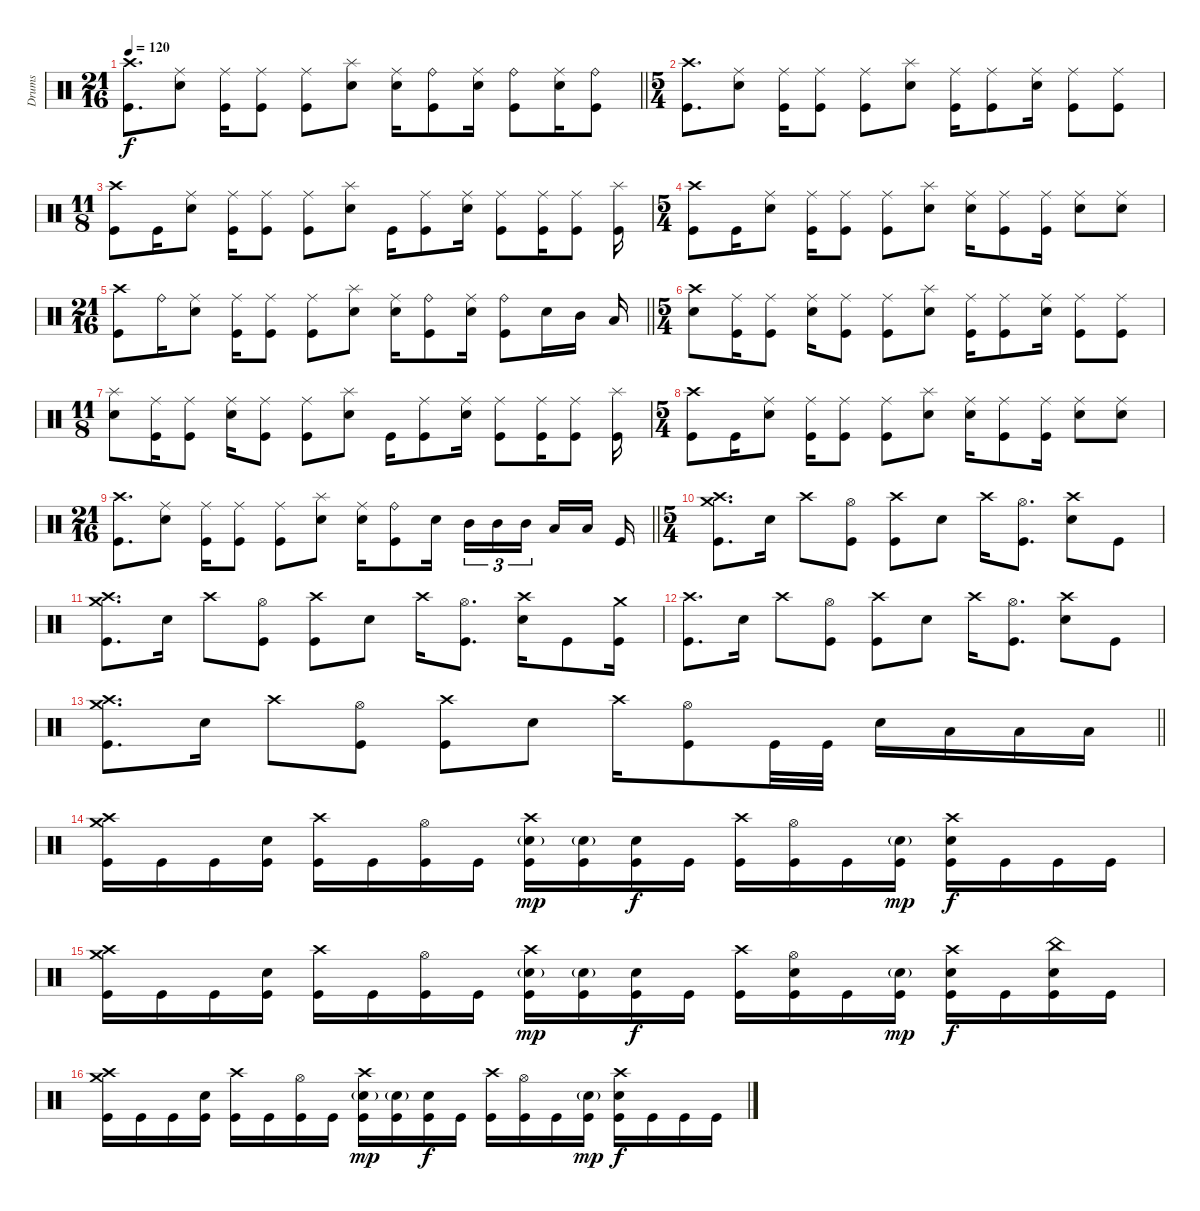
\track ("Drums" "Drums") {instrument percussion}
\staff
\articulation defaults
\ts (21 16)
\tempo 120
\clef neutral
\barLineRight lightlight
\ks c
("Crash high (hit)" "Kick (hit)").8{d dy f} ("Ride (middle)" "Electric Snare (hit)").8 ("Ride (middle)" "Kick (hit)").16 ("Ride (middle)" "Kick (hit)").8 ("Ride (middle)" "Kick (hit)").8 ("Splash (hit)" "Electric Snare (hit)").8 ("Ride (middle)" "Electric Snare (hit)").16 ("Ride (bell)" "Kick (hit)").8 ("Ride (middle)" "Electric Snare (hit)").16 ("Ride (bell)" "Kick (hit)").8 ("Ride (middle)" "Electric Snare (hit)").16 ("Ride (bell)" "Kick (hit)").8 |
\ts (5 4)
("Crash high (hit)" "Kick (hit)").8{d} ("Ride (middle)" "Electric Snare (hit)").8 ("Ride (middle)" "Kick (hit)").16 ("Ride (middle)" "Kick (hit)").8 ("Ride (middle)" "Kick (hit)").8 ("Splash (hit)" "Electric Snare (hit)").8 ("Ride (middle)" "Kick (hit)").16 ("Ride (middle)" "Kick (hit)").8 ("Ride (middle)" "Electric Snare (hit)").16 ("Ride (middle)" "Kick (hit)").8 ("Ride (middle)" "Kick (hit)").8 |
\ts (11 8)
("Crash high (hit)" "Kick (hit)").8 "Kick (hit)".16 ("Ride (middle)" "Electric Snare (hit)").8 ("Ride (middle)" "Kick (hit)").16 ("Ride (middle)" "Kick (hit)").8 ("Ride (middle)" "Kick (hit)").8 ("Splash (hit)" "Electric Snare (hit)").8 "Kick (hit)".16 ("Ride (middle)" "Kick (hit)").8 ("Ride (middle)" "Electric Snare (hit)").16 ("Ride (middle)" "Kick (hit)").8 ("Ride (middle)" "Kick (hit)").16 ("Ride (middle)" "Kick (hit)").8 ("Splash (hit)" "Kick (hit)").16 |
\ts (5 4)
("Crash high (hit)" "Kick (hit)").8 "Kick (hit)".16 ("Ride (middle)" "Electric Snare (hit)").8 ("Ride (middle)" "Kick (hit)").16 ("Ride (middle)" "Kick (hit)").8 ("Ride (middle)" "Kick (hit)").8 ("Splash (hit)" "Electric Snare (hit)").8 ("Ride (middle)" "Electric Snare (hit)").16 ("Ride (middle)" "Kick (hit)").8 ("Ride (middle)" "Kick (hit)").16 ("Ride (middle)" "Electric Snare (hit)").8 ("Ride (middle)" "Electric Snare (hit)").8 |
\ts (21 16)
\barLineRight lightlight
("Crash high (hit)" "Kick (hit)").8 "Ride (bell)".16 ("Ride (middle)" "Electric Snare (hit)").8 ("Ride (middle)" "Kick (hit)").16 ("Ride (middle)" "Kick (hit)").8 ("Ride (middle)" "Kick (hit)").8 ("Splash (hit)" "Electric Snare (hit)").8 ("Ride (middle)" "Electric Snare (hit)").16 ("Ride (bell)" "Kick (hit)").8 ("Ride (middle)" "Electric Snare (hit)").16 ("Ride (bell)" "Kick (hit)").8 "Electric Snare (hit)".16 "Mid Tom (hit)".16 "Low Tom (hit)".16 |
\ts (5 4)
("Crash high (hit)" "Electric Snare (hit)").8 ("Ride (middle)" "Kick (hit)").16 ("Ride (middle)" "Kick (hit)").8 ("Ride (middle)" "Electric Snare (hit)").16 ("Ride (middle)" "Kick (hit)").8 ("Ride (middle)" "Kick (hit)").8 ("Splash (hit)" "Electric Snare (hit)").8 ("Ride (middle)" "Kick (hit)").16 ("Ride (middle)" "Kick (hit)").8 ("Ride (middle)" "Electric Snare (hit)").16 ("Ride (middle)" "Kick (hit)").8 ("Ride (middle)" "Kick (hit)").8 |
\ts (11 8)
("Splash (hit)" "Electric Snare (hit)").8 ("Ride (middle)" "Kick (hit)").16 ("Ride (middle)" "Kick (hit)").8 ("Ride (middle)" "Electric Snare (hit)").16 ("Ride (middle)" "Kick (hit)").8 ("Ride (middle)" "Kick (hit)").8 ("Splash (hit)" "Electric Snare (hit)").8 "Kick (hit)".16 ("Ride (middle)" "Kick (hit)").8 ("Ride (middle)" "Electric Snare (hit)").16 ("Ride (middle)" "Kick (hit)").8 ("Ride (middle)" "Kick (hit)").16 ("Ride (middle)" "Kick (hit)").8 ("Splash (hit)" "Kick (hit)").16 |
\ts (5 4)
("Crash high (hit)" "Kick (hit)").8 "Kick (hit)".16 ("Ride (middle)" "Electric Snare (hit)").8 ("Ride (middle)" "Kick (hit)").16 ("Ride (middle)" "Kick (hit)").8 ("Ride (middle)" "Kick (hit)").8 ("Splash (hit)" "Electric Snare (hit)").8 ("Ride (middle)" "Electric Snare (hit)").16 ("Ride (middle)" "Kick (hit)").8 ("Ride (middle)" "Kick (hit)").16 ("Ride (middle)" "Electric Snare (hit)").8 ("Ride (middle)" "Electric Snare (hit)").8 |
\ts (21 16)
\barLineRight lightlight
("Crash high (hit)" "Kick (hit)").8{d} ("Ride (middle)" "Electric Snare (hit)").8 ("Ride (middle)" "Kick (hit)").16 ("Ride (middle)" "Kick (hit)").8 ("Ride (middle)" "Kick (hit)").8 ("Splash (hit)" "Electric Snare (hit)").8 ("Ride (middle)" "Electric Snare (hit)").16 ("Ride (bell)" "Kick (hit)").8 "Electric Snare (hit)".16{beam splitsecondary} "Mid Tom (hit)".16{tu (3 2)} "Mid Tom (hit)".16{tu (3 2)} "Mid Tom (hit)".16{tu (3 2)} "Low Tom (hit)".16 "Low Tom (hit)".16 "Kick (hit)".16 |
\ts (5 4)
\section ("" "")
("Crash high (hit)" "Crash medium (hit)" "Kick (hit)").8{d} "Electric Snare (hit)".16 "Crash high (hit)".8 ("Hi-Hat (open)" "Kick (hit)").8 ("Crash high (hit)" "Kick (hit)").8 "Electric Snare (hit)".8 "Crash high (hit)".16 ("Hi-Hat (open)" "Kick (hit)").8{d} ("Crash high (hit)" "Electric Snare (hit)").8 "Kick (hit)".8 |
("Crash high (hit)" "Crash medium (hit)" "Kick (hit)").8{d} "Electric Snare (hit)".16 "Crash high (hit)".8 ("Hi-Hat (open)" "Kick (hit)").8 ("Crash high (hit)" "Kick (hit)").8 "Electric Snare (hit)".8 "Crash high (hit)".16 ("Hi-Hat (open)" "Kick (hit)").8{d} ("Crash high (hit)" "Electric Snare (hit)").16 "Kick (hit)".8 ("Crash medium (hit)" "Kick (hit)").16 |
("Crash high (hit)" "Kick (hit)").8{d} "Electric Snare (hit)".16 "Crash high (hit)".8 ("Hi-Hat (open)" "Kick (hit)").8 ("Crash high (hit)" "Kick (hit)").8 "Electric Snare (hit)".8 "Crash high (hit)".16 ("Hi-Hat (open)" "Kick (hit)").8{d} ("Crash high (hit)" "Electric Snare (hit)").8 "Kick (hit)".8 |
\barLineRight lightlight
("Crash high (hit)" "Crash medium (hit)" "Kick (hit)").8{d} "Electric Snare (hit)".16 "Crash high (hit)".8 ("Hi-Hat (open)" "Kick (hit)").8 ("Crash high (hit)" "Kick (hit)").8 "Electric Snare (hit)".8 "Crash high (hit)".16 ("Hi-Hat (open)" "Kick (hit)").8 "Kick (hit)".32 "Kick (hit)".32 "Electric Snare (hit)".16 "Low Tom (hit)".16 "Low Tom (hit)".16 "Low Tom (hit)".16 |
\section ("" "")
("Crash high (hit)" "Crash medium (hit)" "Kick (hit)").16 "Kick (hit)".16 "Kick (hit)".16 ("Electric Snare (hit)" "Kick (hit)").16 ("Crash high (hit)" "Kick (hit)").16 "Kick (hit)".16 ("Hi-Hat (open)" "Kick (hit)").16 "Kick (hit)".16 ("Crash high (hit)" "Electric Snare (hit)"{g} "Kick (hit)").16{dy mp} ("Electric Snare (hit)"{g} "Kick (hit)").16 ("Electric Snare (hit)" "Kick (hit)").16{dy f} "Kick (hit)".16 ("Crash high (hit)" "Kick (hit)").16 ("Hi-Hat (open)" "Kick (hit)").16 "Kick (hit)".16 ("Electric Snare (hit)"{g} "Kick (hit)").16{dy mp} ("Crash high (hit)" "Electric Snare (hit)" "Kick (hit)").16{dy f} "Kick (hit)".16 "Kick (hit)".16 "Kick (hit)".16 |
("Crash high (hit)" "Crash medium (hit)" "Kick (hit)").16 "Kick (hit)".16 "Kick (hit)".16 ("Electric Snare (hit)" "Kick (hit)").16 ("Crash high (hit)" "Kick (hit)").16 "Kick (hit)".16 ("Hi-Hat (open)" "Kick (hit)").16 "Kick (hit)".16 ("Crash high (hit)" "Electric Snare (hit)"{g} "Kick (hit)").16{dy mp} ("Electric Snare (hit)"{g} "Kick (hit)").16 ("Electric Snare (hit)" "Kick (hit)").16{dy f} "Kick (hit)".16 ("Crash high (hit)" "Kick (hit)").16 ("Hi-Hat (open)" "Electric Snare (hit)" "Kick (hit)").16 "Kick (hit)".16 ("Electric Snare (hit)"{g} "Kick (hit)").16{dy mp} ("Crash high (hit)" "Electric Snare (hit)" "Kick (hit)").16{dy f} "Kick (hit)".16 ("China (hit)" "Electric Snare (hit)" "Kick (hit)").16 "Kick (hit)".16 |
("Crash high (hit)" "Crash medium (hit)" "Kick (hit)").16 "Kick (hit)".16 "Kick (hit)".16 ("Electric Snare (hit)" "Kick (hit)").16 ("Crash high (hit)" "Kick (hit)").16 "Kick (hit)".16 ("Hi-Hat (open)" "Kick (hit)").16 "Kick (hit)".16 ("Crash high (hit)" "Electric Snare (hit)"{g} "Kick (hit)").16{dy mp} ("Electric Snare (hit)"{g} "Kick (hit)").16 ("Electric Snare (hit)" "Kick (hit)").16{dy f} "Kick (hit)".16 ("Crash high (hit)" "Kick (hit)").16 ("Hi-Hat (open)" "Kick (hit)").16 "Kick (hit)".16 ("Electric Snare (hit)"{g} "Kick (hit)").16{dy mp} ("Crash high (hit)" "Electric Snare (hit)" "Kick (hit)").16{dy f} "Kick (hit)".16 "Kick (hit)".16 "Kick (hit)".16
